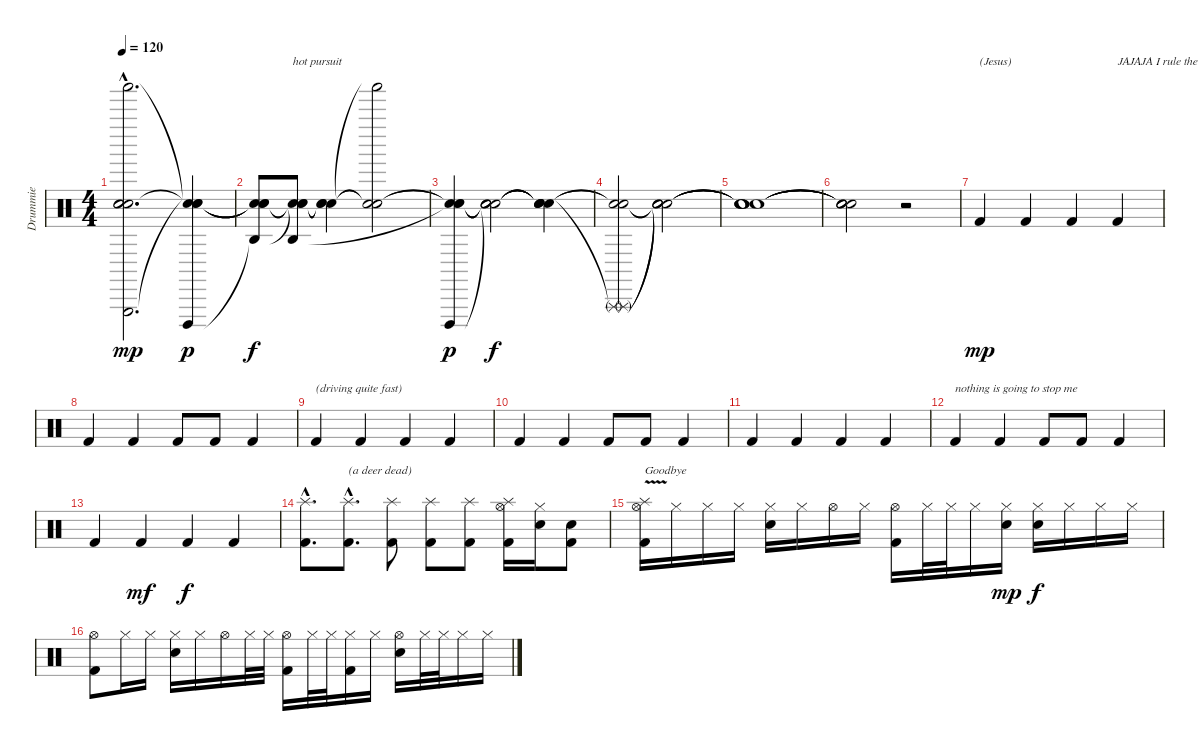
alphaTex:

\track ("Drummie" "Drummie") {instrument percussion}
\staff {score}
\articulation defaults
\ts (4 4)
\tempo 120
\clef neutral
\ks c
("Triangle (hit)"{hac} "Snare (hit)"{hac t} "Snare (hit)"{hac t} "Shaker (hit)"{hac} "Snare (hit)"{hac t}).2{d dy mp} ("Snare (hit)"{t} "Cuica (open)" "Snare (hit)"{t} "Snare (hit)"{t}).4{dy p} |
("Snare (hit)"{t} "Agogo high (hit)"{t} "Snare (hit)"{t} "Snare (hit)"{t}).8{dy f} ("Snare (hit)"{t} "Snare (hit)"{t} "Snare (hit)"{t} "Agogo high (hit)").8{txt "hot pursuit"} ("Snare (hit)"{t} "Snare (hit)"{t} "Snare (hit)"{t}).4 ("Snare (hit)"{t} "Shaker (hit)"{t} "Snare (hit)"{t}).2 |
("Snare (hit)"{t} "Cuica (open)" "Snare (hit)"{t} "Snare (hit)"{t}).4{dy p} ("Snare (hit)"{t} "Snare (hit)"{t} "Snare (hit)"{t} "Snare (hit)"{t}).2{dy f} ("Snare (hit)"{t} "Snare (hit)"{t} "Snare (hit)"{t} "Snare (hit)"{t}).4 |
("Triangle (rnute)" "Triangle (rnute)"{t} "Snare (hit)"{t} "Snare (hit)"{t}).2 ("Snare (hit)"{t} "Snare (hit)"{t} "Snare (hit)"{t} "Snare (hit)"{t}).2{volume 0} |
("Snare (hit)"{t} "Snare (hit)"{t} "Snare (hit)"{t} "Snare (hit)"{t}).1 |
("Snare (hit)"{t} "Snare (hit)"{t} "Snare (hit)"{t} "Snare (hit)"{t}).2 r.2{volume 13} |
"Kick (hit) 2".4{txt "(Jesus)" dy mp} "Kick (hit) 2".4 "Kick (hit) 2".4 "Kick (hit) 2".4{txt "JAJAJA I rule the world"} |
"Kick (hit) 2".4 "Kick (hit) 2".4 "Kick (hit) 2".8 "Kick (hit) 2".8 "Kick (hit) 2".4 |
"Kick (hit) 2".4{txt "(driving quite fast)"} "Kick (hit) 2".4 "Kick (hit) 2".4 "Kick (hit) 2".4 |
"Kick (hit) 2".4 "Kick (hit) 2".4 "Kick (hit) 2".8 "Kick (hit) 2".8 "Kick (hit) 2".4 |
"Kick (hit) 2".4 "Kick (hit) 2".4 "Kick (hit) 2".4 "Kick (hit) 2".4 |
"Kick (hit) 2".4{txt "nothing is going to stop me"} "Kick (hit) 2".4 "Kick (hit) 2".8 "Kick (hit) 2".8 "Kick (hit) 2".4 |
"Kick (hit) 2".4 "Kick (hit) 2".4{dy mf} "Kick (hit) 2".4{dy f} "Kick (hit) 2".4 |
("Splash (hit)"{hac} "Kick (hit) 2"{hac}).8{d} ("Splash (hit)"{hac} "Kick (hit) 2"{hac}).8{d txt "(a deer dead)"} ("Splash (hit)" "Kick (hit) 2").8 ("Splash (hit)" "Kick (hit) 2").8 ("Splash (hit)" "Kick (hit) 2").8 ("Splash (hit)" "Hi-Hat (open)" "Kick (hit) 2").16 ("Hi-Hat (closed)" "Electric Snare (hit)").16 ("Electric Snare (hit)" "Kick (hit) 2").8 |
("Splash (hit)"{v} "Hi-Hat (open)" "Kick (hit) 2").16{txt "Goodbye"} "Hi-Hat (closed)".16 "Hi-Hat (closed)".16 "Hi-Hat (closed)".16 ("Hi-Hat (closed)" "Electric Snare (hit)").16 "Hi-Hat (closed)".16 "Hi-Hat (open)".16 "Hi-Hat (closed)".16 ("Hi-Hat (open)" "Kick (hit) 2").16 "Hi-Hat (closed)".32 "Hi-Hat (closed)".32 "Hi-Hat (closed)".16 ("Hi-Hat (closed)" "Electric Snare (hit)").16{dy mp} ("Hi-Hat (closed)" "Electric Snare (hit)").16{dy f} "Hi-Hat (closed)".16 "Hi-Hat (closed)".16 "Hi-Hat (closed)".16 |
("Hi-Hat (open)" "Kick (hit) 2").8 "Hi-Hat (closed)".16 "Hi-Hat (closed)".16 ("Hi-Hat (closed)" "Electric Snare (hit)").16 "Hi-Hat (closed)".16 "Hi-Hat (open)".16 "Hi-Hat (closed)".32 "Hi-Hat (closed)".32 ("Hi-Hat (open)" "Kick (hit) 2").16 "Hi-Hat (closed)".32 "Hi-Hat (closed)".32 ("Hi-Hat (closed)" "Kick (hit) 2").16 "Hi-Hat (closed)".16 ("Hi-Hat (open)" "Electric Snare (hit)").16 "Hi-Hat (closed)".32 "Hi-Hat (closed)".32 "Hi-Hat (closed)".16 "Hi-Hat (closed)".16
